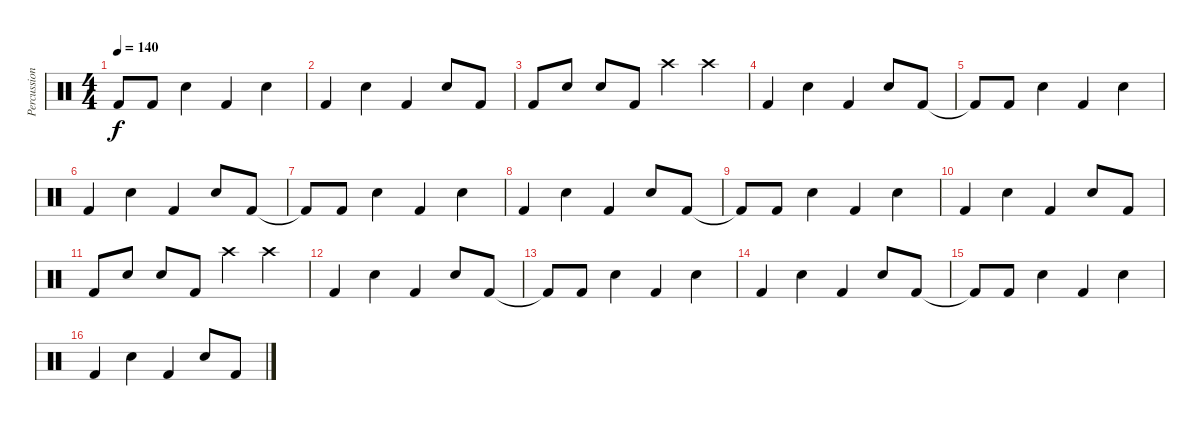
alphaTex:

\track ("Percussion" "Percussion") {instrument percussion}
\staff {score}
\articulation defaults
\ts (4 4)
\tempo 140
\clef neutral
\ks c "Kick (hit) 2"{t}.8{dy f} "Kick (hit) 2".8 "Electric Snare (hit)".4 "Kick (hit) 2".4 "Electric Snare (hit)".4
|
"Kick (hit) 2".4 "Electric Snare (hit)".4 "Kick (hit) 2".4 "Electric Snare (hit)".8 "Kick (hit) 2".8 |
"Kick (hit) 2".8 "Electric Snare (hit)".8 "Electric Snare (hit)".8 "Kick (hit) 2".8 "Crash high (hit)".4 "Crash high (hit)".4 |
"Kick (hit) 2".4 "Electric Snare (hit)".4 "Kick (hit) 2".4 "Electric Snare (hit)".8 "Kick (hit) 2".8 |
"Kick (hit) 2"{t}.8 "Kick (hit) 2".8 "Electric Snare (hit)".4 "Kick (hit) 2".4 "Electric Snare (hit)".4 |
"Kick (hit) 2".4 "Electric Snare (hit)".4 "Kick (hit) 2".4 "Electric Snare (hit)".8 "Kick (hit) 2".8 |
"Kick (hit) 2"{t}.8 "Kick (hit) 2".8 "Electric Snare (hit)".4 "Kick (hit) 2".4 "Electric Snare (hit)".4 |
"Kick (hit) 2".4 "Electric Snare (hit)".4 "Kick (hit) 2".4 "Electric Snare (hit)".8 "Kick (hit) 2".8 |
"Kick (hit) 2"{t}.8 "Kick (hit) 2".8 "Electric Snare (hit)".4 "Kick (hit) 2".4 "Electric Snare (hit)".4 |
"Kick (hit) 2".4 "Electric Snare (hit)".4 "Kick (hit) 2".4 "Electric Snare (hit)".8 "Kick (hit) 2".8 |
"Kick (hit) 2".8 "Electric Snare (hit)".8 "Electric Snare (hit)".8 "Kick (hit) 2".8 "Crash high (hit)".4 "Crash high (hit)".4 |
"Kick (hit) 2".4 "Electric Snare (hit)".4 "Kick (hit) 2".4 "Electric Snare (hit)".8 "Kick (hit) 2".8 |
"Kick (hit) 2"{t}.8 "Kick (hit) 2".8 "Electric Snare (hit)".4 "Kick (hit) 2".4 "Electric Snare (hit)".4 |
"Kick (hit) 2".4 "Electric Snare (hit)".4 "Kick (hit) 2".4 "Electric Snare (hit)".8 "Kick (hit) 2".8 |
"Kick (hit) 2"{t}.8 "Kick (hit) 2".8 "Electric Snare (hit)".4 "Kick (hit) 2".4 "Electric Snare (hit)".4 |
"Kick (hit) 2".4 "Electric Snare (hit)".4 "Kick (hit) 2".4 "Electric Snare (hit)".8 "Kick (hit) 2".8
